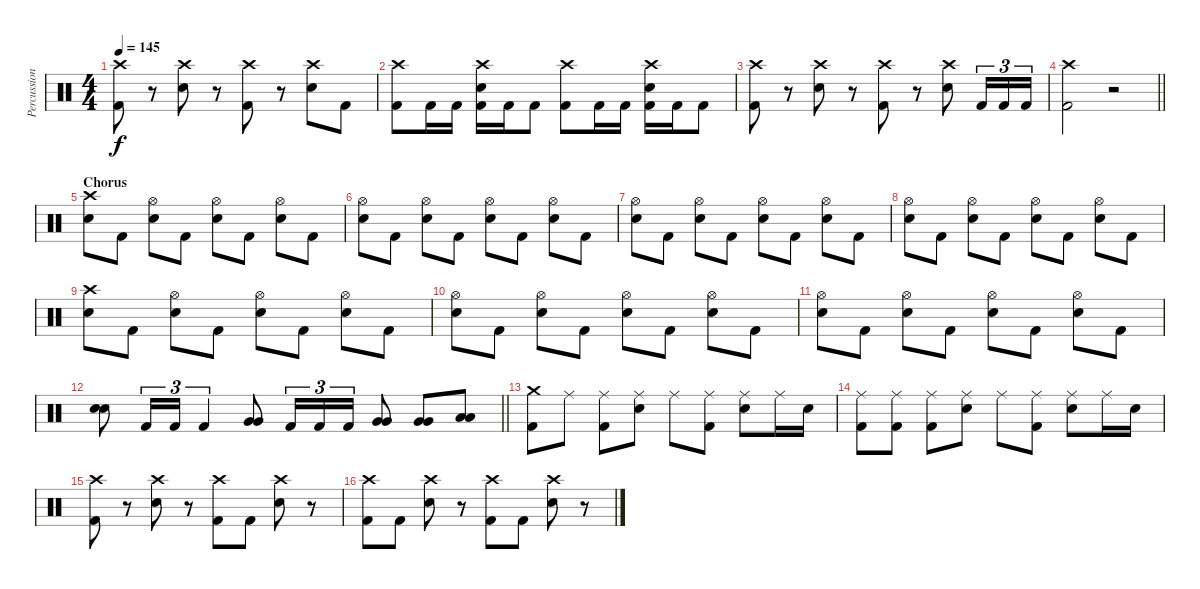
\track ("Percussion" "Percussion") {instrument percussion}
\staff {score}
\articulation defaults
\ts (4 4)
\tempo 145
\clef neutral
\ks c
("Crash high (hit)" "Kick (hit) 2").8{dy f} r.8 ("Crash high (hit)" "Snare (hit) 2").8 r.8 ("Crash high (hit)" "Kick (hit) 2").8 r.8 ("Crash high (hit)" "Snare (hit) 2").8 "Kick (hit) 2".8 |
("Crash high (hit)" "Kick (hit) 2").8 "Kick (hit) 2".16 "Kick (hit) 2".16 ("Crash high (hit)" "Snare (hit) 2" "Kick (hit) 2").16 "Kick (hit) 2".16 "Kick (hit) 2".8 ("Crash high (hit)" "Kick (hit) 2").8 "Kick (hit) 2".16 "Kick (hit) 2".16 ("Crash high (hit)" "Snare (hit) 2" "Kick (hit) 2").16 "Kick (hit) 2".16 "Kick (hit) 2".8 |
("Crash high (hit)" "Kick (hit) 2").8 r.8 ("Crash high (hit)" "Snare (hit) 2").8 r.8 ("Crash high (hit)" "Kick (hit) 2").8 r.8 ("Crash high (hit)" "Snare (hit) 2").8 "Kick (hit) 2".16{tu (3 2)} "Kick (hit) 2".16{tu (3 2)} "Kick (hit) 2".16{tu (3 2)} |
\barLineRight lightlight
("Crash high (hit)" "Kick (hit) 2").2 r.2 |
\section ("" "Chorus")
("Crash high (hit)" "Snare (hit) 2").8 "Kick (hit) 2".8 ("Hi-Hat (open)" "Snare (hit) 2").8 "Kick (hit) 2".8 ("Hi-Hat (open)" "Snare (hit) 2").8 "Kick (hit) 2".8 ("Hi-Hat (open)" "Snare (hit) 2").8 "Kick (hit) 2".8 |
("Hi-Hat (open)" "Snare (hit) 2").8 "Kick (hit) 2".8 ("Hi-Hat (open)" "Snare (hit) 2").8 "Kick (hit) 2".8 ("Hi-Hat (open)" "Snare (hit) 2").8 "Kick (hit) 2".8 ("Hi-Hat (open)" "Snare (hit) 2").8 "Kick (hit) 2".8 |
("Hi-Hat (open)" "Snare (hit) 2").8 "Kick (hit) 2".8 ("Hi-Hat (open)" "Snare (hit) 2").8 "Kick (hit) 2".8 ("Hi-Hat (open)" "Snare (hit) 2").8 "Kick (hit) 2".8 ("Hi-Hat (open)" "Snare (hit) 2").8 "Kick (hit) 2".8 |
("Hi-Hat (open)" "Snare (hit) 2").8 "Kick (hit) 2".8 ("Hi-Hat (open)" "Snare (hit) 2").8 "Kick (hit) 2".8 ("Hi-Hat (open)" "Snare (hit) 2").8 "Kick (hit) 2".8 ("Hi-Hat (open)" "Snare (hit) 2").8 "Kick (hit) 2".8 |
("Crash high (hit)" "Snare (hit) 2").8 "Kick (hit) 2".8 ("Hi-Hat (open)" "Snare (hit) 2").8 "Kick (hit) 2".8 ("Hi-Hat (open)" "Snare (hit) 2").8 "Kick (hit) 2".8 ("Hi-Hat (open)" "Snare (hit) 2").8 "Kick (hit) 2".8 |
("Hi-Hat (open)" "Snare (hit) 2").8 "Kick (hit) 2".8 ("Hi-Hat (open)" "Snare (hit) 2").8 "Kick (hit) 2".8 ("Hi-Hat (open)" "Snare (hit) 2").8 "Kick (hit) 2".8 ("Hi-Hat (open)" "Snare (hit) 2").8 "Kick (hit) 2".8 |
("Hi-Hat (open)" "Snare (hit) 2").8 "Kick (hit) 2".8 ("Hi-Hat (open)" "Snare (hit) 2").8 "Kick (hit) 2".8 ("Hi-Hat (open)" "Snare (hit) 2").8 "Kick (hit) 2".8 ("Hi-Hat (open)" "Snare (hit) 2").8 "Kick (hit) 2".8 |
\barLineRight lightlight
("Snare (hit) 2" "Snare (hit) 2").8 "Kick (hit) 2".16{tu (3 2)} "Kick (hit) 2".16{tu (3 2)} "Kick (hit) 2".4{tu (3 2)} ("Very Low Tom (hit)" "Very Low Tom (hit)").8 "Kick (hit) 2".16{tu (3 2)} "Kick (hit) 2".16{tu (3 2)} "Kick (hit) 2".16{tu (3 2)} ("Very Low Tom (hit)" "Very Low Tom (hit)").8 ("Very Low Tom (hit)" "Very Low Tom (hit)").8 ("Low Floor Tom (hit)" "Low Floor Tom (hit)").8 |
("Crash medium (hit)" "Kick (hit) 2").8 "Ride (middle)".8 ("Ride (middle)" "Kick (hit) 2").8 ("Ride (middle)" "Snare (hit) 2").8 "Ride (middle)".8 ("Ride (middle)" "Kick (hit) 2").8 ("Ride (middle)" "Snare (hit) 2").8 "Ride (middle)".16 "Snare (hit) 2".16 |
("Ride (middle)" "Kick (hit) 2").8 ("Ride (middle)" "Kick (hit) 2").8 ("Ride (middle)" "Kick (hit) 2").8 ("Ride (middle)" "Snare (hit) 2").8 "Ride (middle)".8 ("Ride (middle)" "Kick (hit) 2").8 ("Ride (middle)" "Snare (hit) 2").8 "Ride (middle)".16 "Snare (hit) 2".16 |
("Crash high (hit)" "Kick (hit) 2").8 r.8 ("Crash high (hit)" "Snare (hit) 2").8 r.8 ("Crash high (hit)" "Kick (hit) 2").8 "Kick (hit) 2".8 ("Crash high (hit)" "Snare (hit) 2").8 r.8 |
("Crash high (hit)" "Kick (hit) 2").8 "Kick (hit) 2".8 ("Crash high (hit)" "Snare (hit) 2").8 r.8 ("Crash high (hit)" "Kick (hit) 2").8 "Kick (hit) 2".8 ("Crash high (hit)" "Snare (hit) 2").8 r.8
